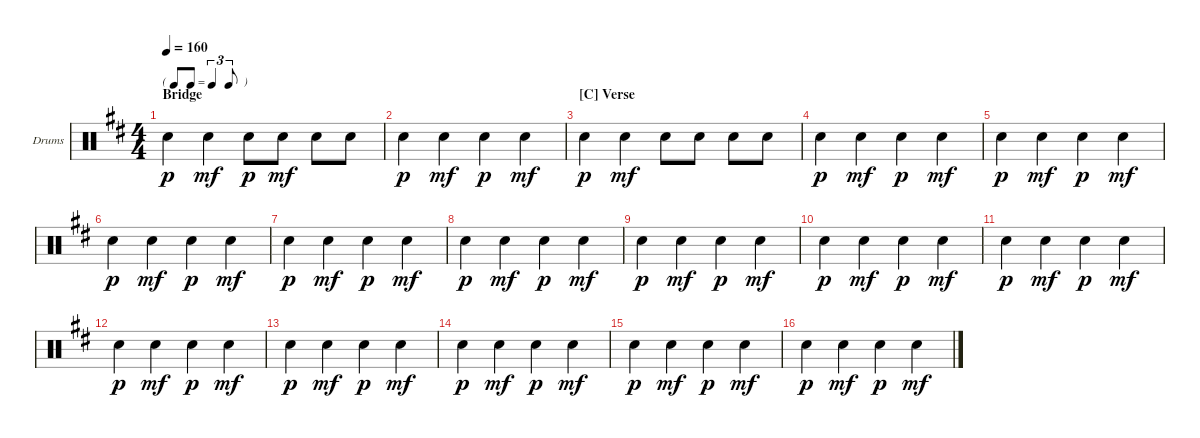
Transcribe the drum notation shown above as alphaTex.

\defaultSystemsLayout 4
\bracketExtendMode groupsimilarinstruments
\firstSystemTrackNameOrientation horizontal
\otherSystemsTrackNameOrientation horizontal
\track ("Hal Blaine" "Drums") {instrument percussion}
\staff {score}
\articulation defaults
\ts (4 4)
\tf triplet8th
\section ("" "Bridge")
\tempo 160
\clef neutral
\ks bminor "Snare (hit) 2".4{dy p} "Snare (hit) 2".4{dy mf} "Snare (hit) 2".8{dy p} "Snare (hit) 2".8{dy mf} "Snare (hit) 2".8 "Snare (hit) 2".8
|
"Snare (hit) 2".4{dy p} "Snare (hit) 2".4{dy mf} "Snare (hit) 2".4{dy p} "Snare (hit) 2".4{dy mf} |
\section ("C" "Verse")
"Snare (hit) 2".4{dy p} "Snare (hit) 2".4{dy mf} "Snare (hit) 2".8 "Snare (hit) 2".8 "Snare (hit) 2".8 "Snare (hit) 2".8 |
"Snare (hit) 2".4{dy p} "Snare (hit) 2".4{dy mf} "Snare (hit) 2".4{dy p} "Snare (hit) 2".4{dy mf} |
"Snare (hit) 2".4{dy p} "Snare (hit) 2".4{dy mf} "Snare (hit) 2".4{dy p} "Snare (hit) 2".4{dy mf} |
"Snare (hit) 2".4{dy p} "Snare (hit) 2".4{dy mf} "Snare (hit) 2".4{dy p} "Snare (hit) 2".4{dy mf} |
"Snare (hit) 2".4{dy p} "Snare (hit) 2".4{dy mf} "Snare (hit) 2".4{dy p} "Snare (hit) 2".4{dy mf} |
"Snare (hit) 2".4{dy p} "Snare (hit) 2".4{dy mf} "Snare (hit) 2".4{dy p} "Snare (hit) 2".4{dy mf} |
"Snare (hit) 2".4{dy p} "Snare (hit) 2".4{dy mf} "Snare (hit) 2".4{dy p} "Snare (hit) 2".4{dy mf} |
"Snare (hit) 2".4{dy p} "Snare (hit) 2".4{dy mf} "Snare (hit) 2".4{dy p} "Snare (hit) 2".4{dy mf} |
"Snare (hit) 2".4{dy p} "Snare (hit) 2".4{dy mf} "Snare (hit) 2".4{dy p} "Snare (hit) 2".4{dy mf} |
"Snare (hit) 2".4{dy p} "Snare (hit) 2".4{dy mf} "Snare (hit) 2".4{dy p} "Snare (hit) 2".4{dy mf} |
"Snare (hit) 2".4{dy p} "Snare (hit) 2".4{dy mf} "Snare (hit) 2".4{dy p} "Snare (hit) 2".4{dy mf} |
"Snare (hit) 2".4{dy p} "Snare (hit) 2".4{dy mf} "Snare (hit) 2".4{dy p} "Snare (hit) 2".4{dy mf} |
"Snare (hit) 2".4{dy p} "Snare (hit) 2".4{dy mf} "Snare (hit) 2".4{dy p} "Snare (hit) 2".4{dy mf} |
"Snare (hit) 2".4{dy p} "Snare (hit) 2".4{dy mf} "Snare (hit) 2".4{dy p} "Snare (hit) 2".4{dy mf}
